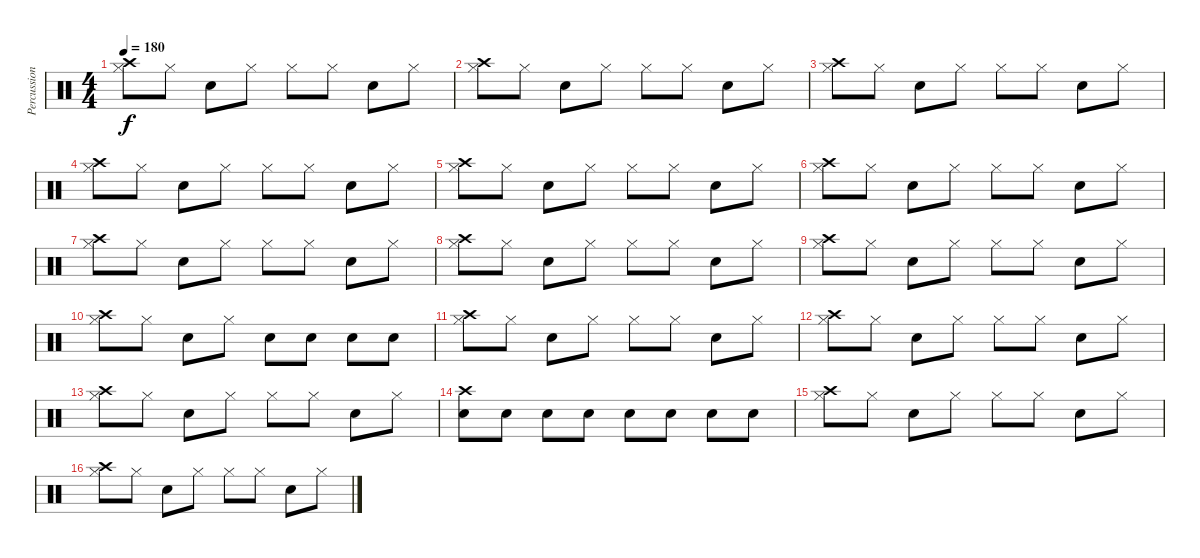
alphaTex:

\track ("Percussion" "Percussion") {instrument percussion}
\staff {score}
\articulation defaults
\ts (4 4)
\tempo 180
\clef neutral
\ks c
("Crash high (hit)" "Hi-Hat (closed)").8{dy f} "Hi-Hat (closed)".8 "Electric Snare (hit)".8 "Hi-Hat (closed)".8 "Hi-Hat (closed)".8 "Hi-Hat (closed)".8 "Electric Snare (hit)".8 "Hi-Hat (closed)".8 |
("Crash high (hit)" "Hi-Hat (closed)").8 "Hi-Hat (closed)".8 "Electric Snare (hit)".8 "Hi-Hat (closed)".8 "Hi-Hat (closed)".8 "Hi-Hat (closed)".8 "Electric Snare (hit)".8 "Hi-Hat (closed)".8 |
("Crash high (hit)" "Hi-Hat (closed)").8 "Hi-Hat (closed)".8 "Electric Snare (hit)".8 "Hi-Hat (closed)".8 "Hi-Hat (closed)".8 "Hi-Hat (closed)".8 "Electric Snare (hit)".8 "Hi-Hat (closed)".8 |
("Crash high (hit)" "Hi-Hat (closed)").8 "Hi-Hat (closed)".8 "Electric Snare (hit)".8 "Hi-Hat (closed)".8 "Hi-Hat (closed)".8 "Hi-Hat (closed)".8 "Electric Snare (hit)".8 "Hi-Hat (closed)".8 |
("Crash high (hit)" "Hi-Hat (closed)").8 "Hi-Hat (closed)".8 "Electric Snare (hit)".8 "Hi-Hat (closed)".8 "Hi-Hat (closed)".8 "Hi-Hat (closed)".8 "Electric Snare (hit)".8 "Hi-Hat (closed)".8 |
("Crash high (hit)" "Hi-Hat (closed)").8 "Hi-Hat (closed)".8 "Electric Snare (hit)".8 "Hi-Hat (closed)".8 "Hi-Hat (closed)".8 "Hi-Hat (closed)".8 "Electric Snare (hit)".8 "Hi-Hat (closed)".8 |
("Crash high (hit)" "Hi-Hat (closed)").8 "Hi-Hat (closed)".8 "Electric Snare (hit)".8 "Hi-Hat (closed)".8 "Hi-Hat (closed)".8 "Hi-Hat (closed)".8 "Electric Snare (hit)".8 "Hi-Hat (closed)".8 |
("Crash high (hit)" "Hi-Hat (closed)").8 "Hi-Hat (closed)".8 "Electric Snare (hit)".8 "Hi-Hat (closed)".8 "Hi-Hat (closed)".8 "Hi-Hat (closed)".8 "Electric Snare (hit)".8 "Hi-Hat (closed)".8 |
("Crash high (hit)" "Hi-Hat (closed)").8 "Hi-Hat (closed)".8 "Electric Snare (hit)".8 "Hi-Hat (closed)".8 "Hi-Hat (closed)".8 "Hi-Hat (closed)".8 "Electric Snare (hit)".8 "Hi-Hat (closed)".8 |
("Crash high (hit)" "Hi-Hat (closed)").8 "Hi-Hat (closed)".8 "Electric Snare (hit)".8 "Hi-Hat (closed)".8 "Electric Snare (hit)".8 "Electric Snare (hit)".8 "Electric Snare (hit)".8 "Electric Snare (hit)".8 |
("Crash high (hit)" "Hi-Hat (closed)").8 "Hi-Hat (closed)".8 "Electric Snare (hit)".8 "Hi-Hat (closed)".8 "Hi-Hat (closed)".8 "Hi-Hat (closed)".8 "Electric Snare (hit)".8 "Hi-Hat (closed)".8 |
("Crash high (hit)" "Hi-Hat (closed)").8 "Hi-Hat (closed)".8 "Electric Snare (hit)".8 "Hi-Hat (closed)".8 "Hi-Hat (closed)".8 "Hi-Hat (closed)".8 "Electric Snare (hit)".8 "Hi-Hat (closed)".8 |
("Crash high (hit)" "Hi-Hat (closed)").8 "Hi-Hat (closed)".8 "Electric Snare (hit)".8 "Hi-Hat (closed)".8 "Hi-Hat (closed)".8 "Hi-Hat (closed)".8 "Electric Snare (hit)".8 "Hi-Hat (closed)".8 |
("Crash high (hit)" "Electric Snare (hit)").8 "Electric Snare (hit)".8 "Electric Snare (hit)".8 "Electric Snare (hit)".8 "Electric Snare (hit)".8 "Electric Snare (hit)".8 "Electric Snare (hit)".8 "Electric Snare (hit)".8 |
("Crash high (hit)" "Hi-Hat (closed)").8 "Hi-Hat (closed)".8 "Electric Snare (hit)".8 "Hi-Hat (closed)".8 "Hi-Hat (closed)".8 "Hi-Hat (closed)".8 "Electric Snare (hit)".8 "Hi-Hat (closed)".8 |
("Crash high (hit)" "Hi-Hat (closed)").8 "Hi-Hat (closed)".8 "Electric Snare (hit)".8 "Hi-Hat (closed)".8 "Hi-Hat (closed)".8 "Hi-Hat (closed)".8 "Electric Snare (hit)".8 "Hi-Hat (closed)".8
